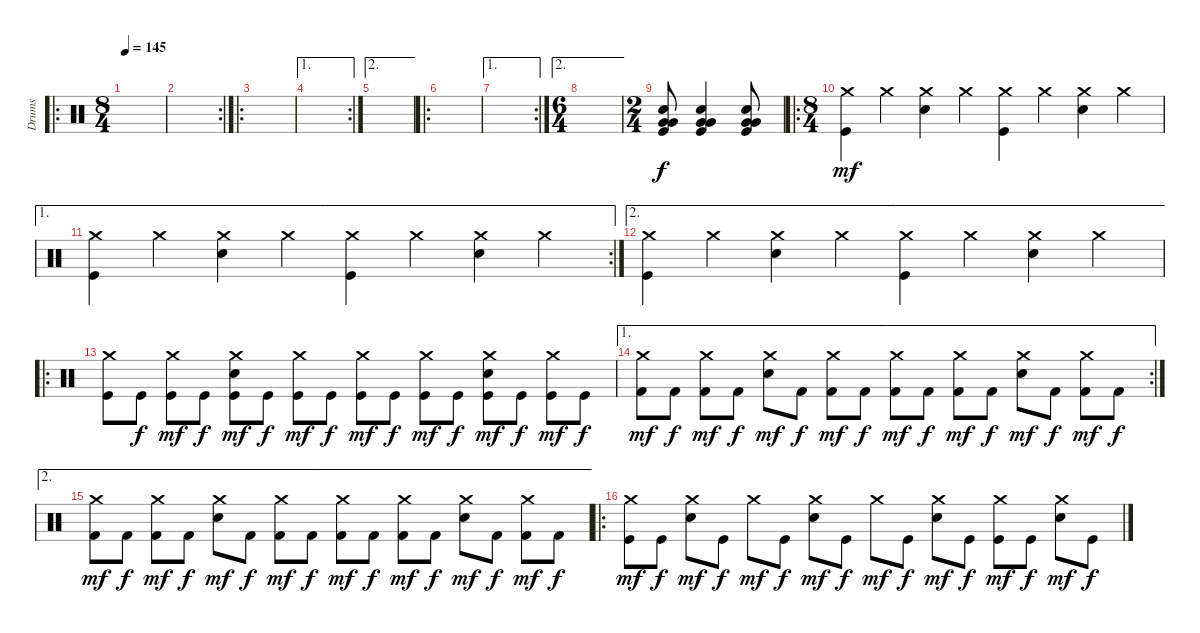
\track ("Drums" "Drums") {instrument percussion}
\staff {score}
\articulation defaults
\ro
\ts (8 4)
\tempo 145
\clef neutral
\ks c
|
\rc 2
|
\ro
|
\ae 1
\rc 2
|
\ae 2
|
\ro
|
\ae 1
\rc 2
|
\ae 2
\ts (6 4)
|
\ts (2 4)
("Very Low Tom (hit)" "Very Low Tom (hit)" "Electric Snare (hit)" "Kick (hit)").8 ("Very Low Tom (hit)" "Very Low Tom (hit)" "Electric Snare (hit)" "Kick (hit)").4 ("Very Low Tom (hit)" "Very Low Tom (hit)" "Electric Snare (hit)" "Kick (hit)").8 |
\ro
\ts (8 4)
("Crash medium (hit)" "Kick (hit)").4{dy mf} "Crash medium (hit)".4 ("Crash medium (hit)" "Electric Snare (hit)").4 "Crash medium (hit)".4 ("Crash medium (hit)" "Kick (hit)").4 "Crash medium (hit)".4 ("Crash medium (hit)" "Electric Snare (hit)").4 "Crash medium (hit)".4 |
\ae 1
\rc 2
("Crash medium (hit)" "Kick (hit)").4 "Crash medium (hit)".4 ("Crash medium (hit)" "Electric Snare (hit)").4 "Crash medium (hit)".4 ("Crash medium (hit)" "Kick (hit)").4 "Crash medium (hit)".4 ("Crash medium (hit)" "Electric Snare (hit)").4 "Crash medium (hit)".4 |
\ae 2
("Crash medium (hit)" "Kick (hit)").4 "Crash medium (hit)".4 ("Crash medium (hit)" "Electric Snare (hit)").4 "Crash medium (hit)".4 ("Crash medium (hit)" "Kick (hit)").4 "Crash medium (hit)".4 ("Crash medium (hit)" "Electric Snare (hit)").4 "Crash medium (hit)".4 |
\ro
("Crash medium (hit)" "Kick (hit)").8 "Kick (hit)".8{dy f} ("Crash medium (hit)" "Kick (hit)").8{dy mf} "Kick (hit)".8{dy f} ("Crash medium (hit)" "Electric Snare (hit)" "Kick (hit)").8{dy mf} "Kick (hit)".8{dy f} ("Crash medium (hit)" "Kick (hit)").8{dy mf} "Kick (hit)".8{dy f} ("Crash medium (hit)" "Kick (hit)").8{dy mf} "Kick (hit)".8{dy f} ("Crash medium (hit)" "Kick (hit)").8{dy mf} "Kick (hit)".8{dy f} ("Crash medium (hit)" "Electric Snare (hit)" "Kick (hit)").8{dy mf} "Kick (hit)".8{dy f} ("Crash medium (hit)" "Kick (hit)").8{dy mf} "Kick (hit)".8{dy f} |
\ae 1
\rc 2
("Crash medium (hit)" "Kick (hit) 2").8{dy mf} "Kick (hit) 2".8{dy f} ("Crash medium (hit)" "Kick (hit) 2").8{dy mf} "Kick (hit) 2".8{dy f} ("Crash medium (hit)" "Electric Snare (hit)").8{dy mf} "Kick (hit) 2".8{dy f} ("Crash medium (hit)" "Kick (hit) 2").8{dy mf} "Kick (hit) 2".8{dy f} ("Crash medium (hit)" "Kick (hit) 2").8{dy mf} "Kick (hit) 2".8{dy f} ("Crash medium (hit)" "Kick (hit) 2").8{dy mf} "Kick (hit) 2".8{dy f} ("Crash medium (hit)" "Electric Snare (hit)").8{dy mf} "Kick (hit) 2".8{dy f} ("Crash medium (hit)" "Kick (hit) 2").8{dy mf} "Kick (hit) 2".8{dy f} |
\ae 2
("Crash medium (hit)" "Kick (hit) 2").8{dy mf} "Kick (hit) 2".8{dy f} ("Crash medium (hit)" "Kick (hit) 2").8{dy mf} "Kick (hit) 2".8{dy f} ("Crash medium (hit)" "Electric Snare (hit)").8{dy mf} "Kick (hit) 2".8{dy f} ("Crash medium (hit)" "Kick (hit) 2").8{dy mf} "Kick (hit) 2".8{dy f} ("Crash medium (hit)" "Kick (hit) 2").8{dy mf} "Kick (hit) 2".8{dy f} ("Crash medium (hit)" "Kick (hit) 2").8{dy mf} "Kick (hit) 2".8{dy f} ("Crash medium (hit)" "Electric Snare (hit)").8{dy mf} "Kick (hit) 2".8{dy f} ("Crash medium (hit)" "Kick (hit) 2").8{dy mf} "Kick (hit) 2".8{dy f} |
\ro
("Crash medium (hit)" "Kick (hit)").8{dy mf} "Kick (hit)".8{dy f} ("Crash medium (hit)" "Electric Snare (hit)").8{dy mf} "Kick (hit)".8{dy f} "Crash medium (hit)".8{dy mf} "Kick (hit)".8{dy f} ("Crash medium (hit)" "Electric Snare (hit)").8{dy mf} "Kick (hit)".8{dy f} "Crash medium (hit)".8{dy mf} "Kick (hit)".8{dy f} ("Crash medium (hit)" "Electric Snare (hit)").8{dy mf} "Kick (hit)".8{dy f} ("Crash medium (hit)" "Kick (hit)").8{dy mf} "Kick (hit)".8{dy f} ("Crash medium (hit)" "Electric Snare (hit)").8{dy mf} "Kick (hit)".8{dy f}
